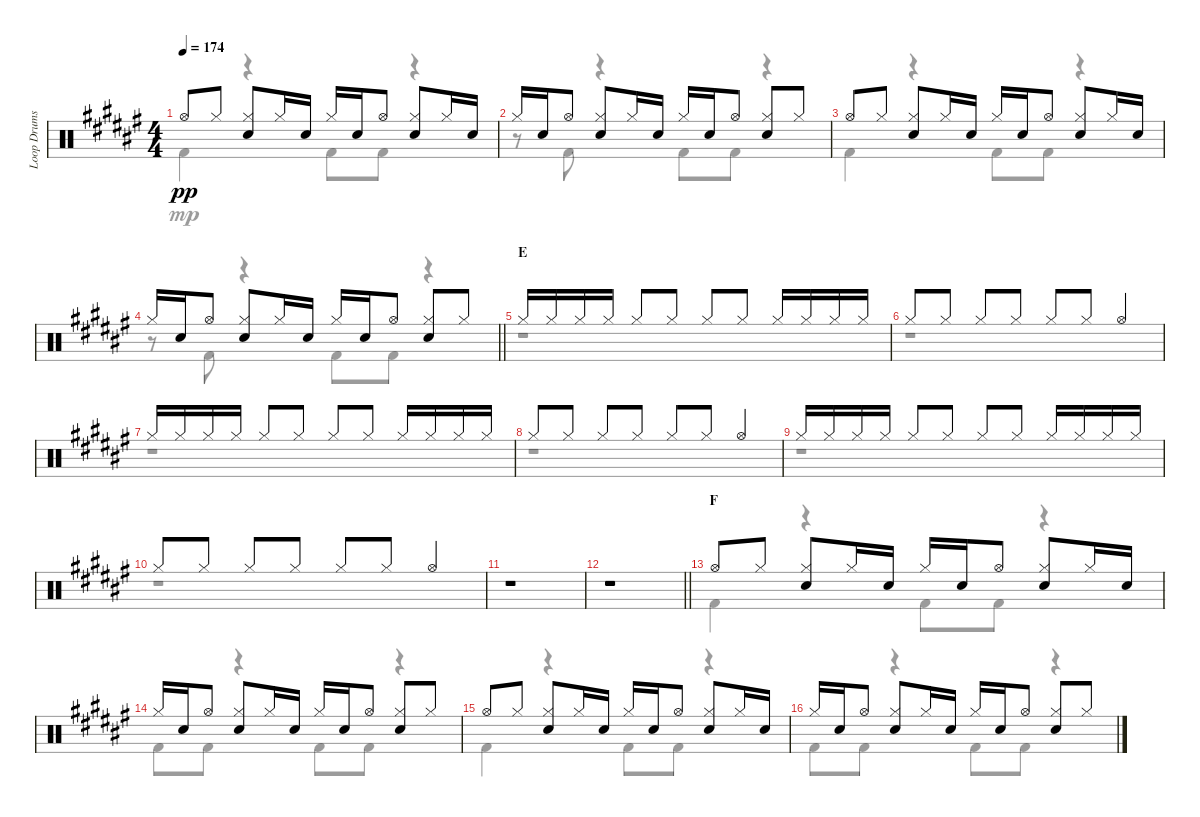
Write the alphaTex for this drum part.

\track ("Loop Drums" "Loop Drums") {instrument percussion}
\staff {score}
\articulation defaults
\voice
\ts (4 4)
\tempo 174
\clef neutral
\ks f# "Hi-Hat (open)".8{dy pp} "Hi-Hat (closed)".8
("Hi-Hat (closed)" "Electric Snare (hit)").8 "Hi-Hat (closed)".16 "Electric Snare (hit)".16 "Hi-Hat (closed)".16 "Electric Snare (hit)".16 "Hi-Hat (open)".8 ("Hi-Hat (closed)" "Electric Snare (hit)").8 "Hi-Hat (closed)".16 "Electric Snare (hit)".16 |
"Hi-Hat (closed)".16 "Electric Snare (hit)".16 "Hi-Hat (open)".8 ("Hi-Hat (closed)" "Electric Snare (hit)").8 "Hi-Hat (closed)".16 "Electric Snare (hit)".16 "Hi-Hat (closed)".16 "Electric Snare (hit)".16 "Hi-Hat (open)".8 ("Hi-Hat (closed)" "Electric Snare (hit)").8 "Hi-Hat (closed)".8 |
"Hi-Hat (open)".8 "Hi-Hat (closed)".8 ("Hi-Hat (closed)" "Electric Snare (hit)").8 "Hi-Hat (closed)".16 "Electric Snare (hit)".16 "Hi-Hat (closed)".16 "Electric Snare (hit)".16 "Hi-Hat (open)".8 ("Hi-Hat (closed)" "Electric Snare (hit)").8 "Hi-Hat (closed)".16 "Electric Snare (hit)".16 |
\barLineRight lightlight "Hi-Hat (closed)".16 "Electric Snare (hit)".16 "Hi-Hat (open)".8
("Hi-Hat (closed)" "Electric Snare (hit)").8 "Hi-Hat (closed)".16 "Electric Snare (hit)".16 "Hi-Hat (closed)".16 "Electric Snare (hit)".16 "Hi-Hat (open)".8 ("Hi-Hat (closed)" "Electric Snare (hit)").8 "Hi-Hat (closed)".8 |
\section ("" "E")
"Hi-Hat (closed)".16 "Hi-Hat (closed)".16 "Hi-Hat (closed)".16 "Hi-Hat (closed)".16 "Hi-Hat (closed)".8 "Hi-Hat (closed)".8 "Hi-Hat (closed)".8 "Hi-Hat (closed)".8 "Hi-Hat (closed)".16 "Hi-Hat (closed)".16 "Hi-Hat (closed)".16 "Hi-Hat (closed)".16 |
"Hi-Hat (closed)".8 "Hi-Hat (closed)".8 "Hi-Hat (closed)".8 "Hi-Hat (closed)".8 "Hi-Hat (closed)".8 "Hi-Hat (closed)".8 "Hi-Hat (open)".4 |
"Hi-Hat (closed)".16 "Hi-Hat (closed)".16 "Hi-Hat (closed)".16 "Hi-Hat (closed)".16 "Hi-Hat (closed)".8 "Hi-Hat (closed)".8 "Hi-Hat (closed)".8 "Hi-Hat (closed)".8 "Hi-Hat (closed)".16 "Hi-Hat (closed)".16 "Hi-Hat (closed)".16 "Hi-Hat (closed)".16 |
"Hi-Hat (closed)".8 "Hi-Hat (closed)".8 "Hi-Hat (closed)".8 "Hi-Hat (closed)".8 "Hi-Hat (closed)".8 "Hi-Hat (closed)".8 "Hi-Hat (open)".4 |
"Hi-Hat (closed)".16 "Hi-Hat (closed)".16 "Hi-Hat (closed)".16 "Hi-Hat (closed)".16 "Hi-Hat (closed)".8 "Hi-Hat (closed)".8 "Hi-Hat (closed)".8 "Hi-Hat (closed)".8 "Hi-Hat (closed)".16 "Hi-Hat (closed)".16 "Hi-Hat (closed)".16 "Hi-Hat (closed)".16 |
"Hi-Hat (closed)".8 "Hi-Hat (closed)".8 "Hi-Hat (closed)".8 "Hi-Hat (closed)".8 "Hi-Hat (closed)".8 "Hi-Hat (closed)".8 "Hi-Hat (open)".4 |
r.1 |
\barLineRight lightlight
r.1 |
\section ("" "F")
"Hi-Hat (open)".8 "Hi-Hat (closed)".8 ("Hi-Hat (closed)" "Electric Snare (hit)").8 "Hi-Hat (closed)".16 "Electric Snare (hit)".16 "Hi-Hat (closed)".16 "Electric Snare (hit)".16 "Hi-Hat (open)".8 ("Hi-Hat (closed)" "Electric Snare (hit)").8 "Hi-Hat (closed)".16 "Electric Snare (hit)".16 |
"Hi-Hat (closed)".16 "Electric Snare (hit)".16 "Hi-Hat (open)".8 ("Hi-Hat (closed)" "Electric Snare (hit)").8 "Hi-Hat (closed)".16 "Electric Snare (hit)".16 "Hi-Hat (closed)".16 "Electric Snare (hit)".16 "Hi-Hat (open)".8 ("Hi-Hat (closed)" "Electric Snare (hit)").8 "Hi-Hat (closed)".8 |
"Hi-Hat (open)".8 "Hi-Hat (closed)".8 ("Hi-Hat (closed)" "Electric Snare (hit)").8 "Hi-Hat (closed)".16 "Electric Snare (hit)".16 "Hi-Hat (closed)".16 "Electric Snare (hit)".16 "Hi-Hat (open)".8 ("Hi-Hat (closed)" "Electric Snare (hit)").8 "Hi-Hat (closed)".16 "Electric Snare (hit)".16 |
"Hi-Hat (closed)".16 "Electric Snare (hit)".16 "Hi-Hat (open)".8 ("Hi-Hat (closed)" "Electric Snare (hit)").8 "Hi-Hat (closed)".16 "Electric Snare (hit)".16 "Hi-Hat (closed)".16 "Electric Snare (hit)".16 "Hi-Hat (open)".8 ("Hi-Hat (closed)" "Electric Snare (hit)").8 "Hi-Hat (closed)".8
\voice
\clef neutral
\ottava regular
\simile none
\ks f# "Kick (hit) 2".4{dy mp}
r.4 "Kick (hit) 2".8 "Kick (hit) 2".8 r.4 |
r.8 "Kick (hit) 2".8 r.4 "Kick (hit) 2".8 "Kick (hit) 2".8 r.4 |
"Kick (hit) 2".4 r.4 "Kick (hit) 2".8 "Kick (hit) 2".8 r.4 |
\barLineRight lightlight
r.8 "Kick (hit) 2".8 r.4 "Kick (hit) 2".8 "Kick (hit) 2".8 r.4 |
r.1 |
r.1 |
r.1 |
r.1 |
r.1 |
r.1 |
r.1 |
\barLineRight lightlight
r.1 |
"Kick (hit) 2".4 r.4 "Kick (hit) 2".8 "Kick (hit) 2".8 r.4 |
"Kick (hit) 2".8 "Kick (hit) 2".8 r.4 "Kick (hit) 2".8 "Kick (hit) 2".8 r.4 |
"Kick (hit) 2".4 r.4 "Kick (hit) 2".8 "Kick (hit) 2".8 r.4 |
"Kick (hit) 2".8 "Kick (hit) 2".8 r.4 "Kick (hit) 2".8 "Kick (hit) 2".8 r.4
